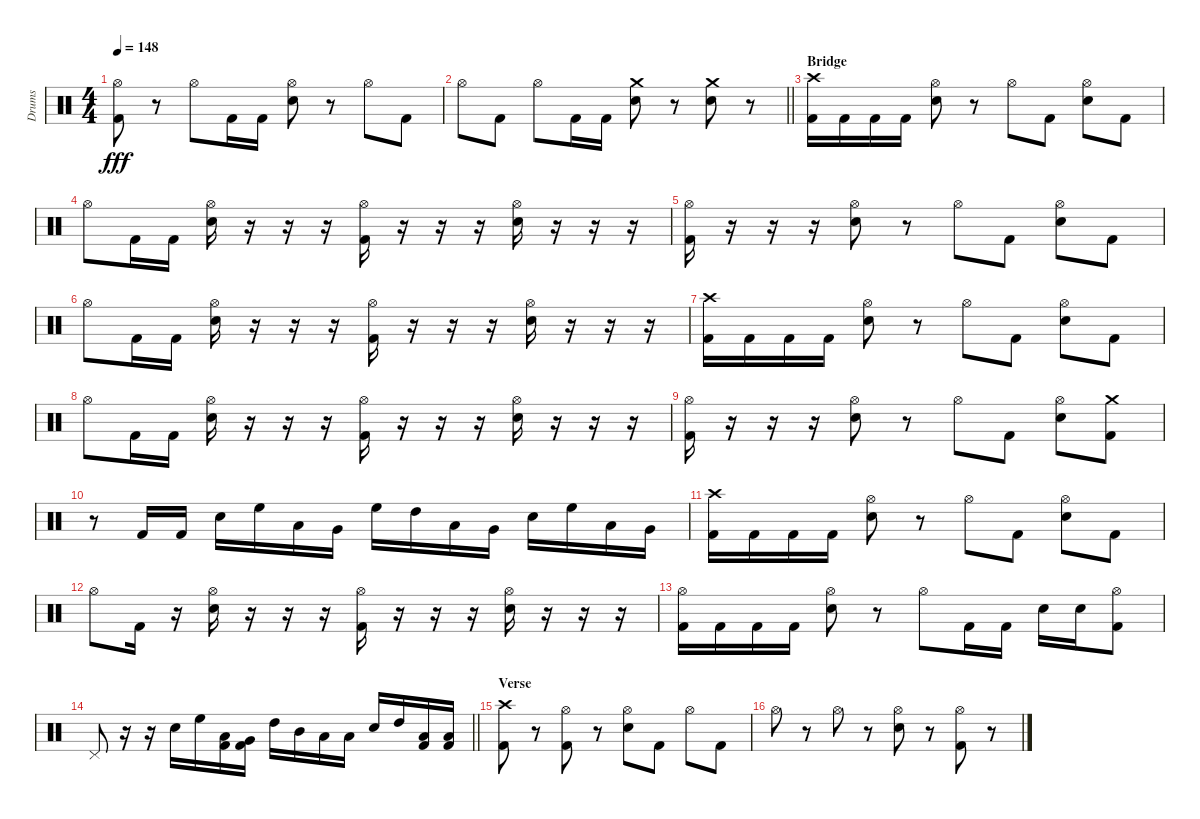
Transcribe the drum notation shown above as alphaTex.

\track ("Drums" "Drums") {instrument percussion}
\staff {score}
\articulation defaults
\ts (4 4)
\tempo 148
\clef neutral
\ks c
("Hi-Hat (open)" "Kick (hit) 2").8{dy fff} r.8 "Hi-Hat (open)".8 "Kick (hit) 2".16 "Kick (hit) 2".16 ("Hi-Hat (open)" "Electric Snare (hit)").8 r.8 "Hi-Hat (open)".8 "Kick (hit) 2".8 |
\barLineRight lightlight "Hi-Hat (open)".8 "Kick (hit) 2".8 "Hi-Hat (open)".8 "Kick (hit) 2".16 "Kick (hit) 2".16
("Crash medium (hit)" "Electric Snare (hit)").8 r.8 ("Crash medium (hit)" "Electric Snare (hit)").8 r.8 |
\section ("" "Bridge ")
("Crash high (hit)" "Kick (hit) 2").16 "Kick (hit) 2".16 "Kick (hit) 2".16 "Kick (hit) 2".16 ("Hi-Hat (open)" "Electric Snare (hit)").8 r.8 "Hi-Hat (open)".8 "Kick (hit) 2".8 ("Hi-Hat (open)" "Electric Snare (hit)").8 "Kick (hit) 2".8 |
"Hi-Hat (open)".8 "Kick (hit) 2".16 "Kick (hit) 2".16 ("Hi-Hat (open)" "Electric Snare (hit)").16 r.16 r.16 r.16 ("Hi-Hat (open)" "Kick (hit) 2").16 r.16 r.16 r.16 ("Hi-Hat (open)" "Electric Snare (hit)").16 r.16 r.16 r.16 |
("Hi-Hat (open)" "Kick (hit) 2").16 r.16 r.16 r.16 ("Hi-Hat (open)" "Electric Snare (hit)").8 r.8 "Hi-Hat (open)".8 "Kick (hit) 2".8 ("Hi-Hat (open)" "Electric Snare (hit)").8 "Kick (hit) 2".8 |
"Hi-Hat (open)".8 "Kick (hit) 2".16 "Kick (hit) 2".16 ("Hi-Hat (open)" "Electric Snare (hit)").16 r.16 r.16 r.16 ("Hi-Hat (open)" "Kick (hit) 2").16 r.16 r.16 r.16 ("Hi-Hat (open)" "Electric Snare (hit)").16 r.16 r.16 r.16 |
("Crash high (hit)" "Kick (hit) 2").16 "Kick (hit) 2".16 "Kick (hit) 2".16 "Kick (hit) 2".16 ("Hi-Hat (open)" "Electric Snare (hit)").8 r.8 "Hi-Hat (open)".8 "Kick (hit) 2".8 ("Hi-Hat (open)" "Electric Snare (hit)").8 "Kick (hit) 2".8 |
"Hi-Hat (open)".8 "Kick (hit) 2".16 "Kick (hit) 2".16 ("Hi-Hat (open)" "Electric Snare (hit)").16 r.16 r.16 r.16 ("Hi-Hat (open)" "Kick (hit) 2").16 r.16 r.16 r.16 ("Hi-Hat (open)" "Electric Snare (hit)").16 r.16 r.16 r.16 |
("Hi-Hat (open)" "Kick (hit) 2").16 r.16 r.16 r.16 ("Hi-Hat (open)" "Electric Snare (hit)").8 r.8 "Hi-Hat (open)".8 "Kick (hit) 2".8 ("Hi-Hat (open)" "Electric Snare (hit)").8 ("Crash medium (hit)" "Kick (hit) 2").8 |
r.8 "Kick (hit) 2".16 "Kick (hit) 2".16 "Electric Snare (hit)".16 "High Floor Tom (hit)".16 "Low Tom (hit)".16 "Very Low Tom (hit)".16 "High Floor Tom (hit)".16 "High Tom (hit)".16 "Low Tom (hit)".16 "Very Low Tom (hit)".16 "Electric Snare (hit)".16 "High Floor Tom (hit)".16 "Low Tom (hit)".16 "Very Low Tom (hit)".16 |
("Crash high (hit)" "Kick (hit) 2").16 "Kick (hit) 2".16 "Kick (hit) 2".16 "Kick (hit) 2".16 ("Hi-Hat (open)" "Electric Snare (hit)").8 r.8 "Hi-Hat (open)".8 "Kick (hit) 2".8 ("Hi-Hat (open)" "Electric Snare (hit)").8 "Kick (hit) 2".8 |
"Hi-Hat (open)".8 "Kick (hit) 2".16 r.16 ("Hi-Hat (open)" "Electric Snare (hit)").16 r.16 r.16 r.16 ("Hi-Hat (open)" "Kick (hit) 2").16 r.16 r.16 r.16 ("Hi-Hat (open)" "Electric Snare (hit)").16 r.16 r.16 r.16 |
("Hi-Hat (open)" "Kick (hit) 2").16 "Kick (hit) 2".16 "Kick (hit) 2".16 "Kick (hit) 2".16 ("Hi-Hat (open)" "Electric Snare (hit)").8 r.8 "Hi-Hat (open)".8 "Kick (hit) 2".16 "Kick (hit) 2".16 "Electric Snare (hit)".16 "Electric Snare (hit)".16 ("Hi-Hat (open)" "Kick (hit) 2").8 |
\barLineRight lightlight "Pedal Hi-Hat (hit)".8
r.16 r.16 "Electric Snare (hit)".16 "High Floor Tom (hit)".16 ("Low Tom (hit)" "Kick (hit) 2").16 ("Very Low Tom (hit)" "Kick (hit) 2").16 "High Tom (hit)".16 "Mid Tom (hit)".16 "Low Tom (hit)".16 "Low Floor Tom (hit)".16 "Electric Snare (hit)".16 "High Tom (hit)".16 ("Low Tom (hit)" "Kick (hit) 2").16 ("Low Floor Tom (hit)" "Kick (hit) 2").16 |
\section ("" "Verse")
("Crash high (hit)" "Kick (hit) 2").8 r.8 ("Hi-Hat (open)" "Kick (hit) 2").8 r.8 ("Hi-Hat (open)" "Electric Snare (hit)").8 "Kick (hit) 2".8 "Hi-Hat (open)".8 "Kick (hit) 2".8 |
"Hi-Hat (open)".8 r.8 "Hi-Hat (open)".8 r.8 ("Hi-Hat (open)" "Electric Snare (hit)").8 r.8 ("Hi-Hat (open)" "Kick (hit) 2").8 r.8
